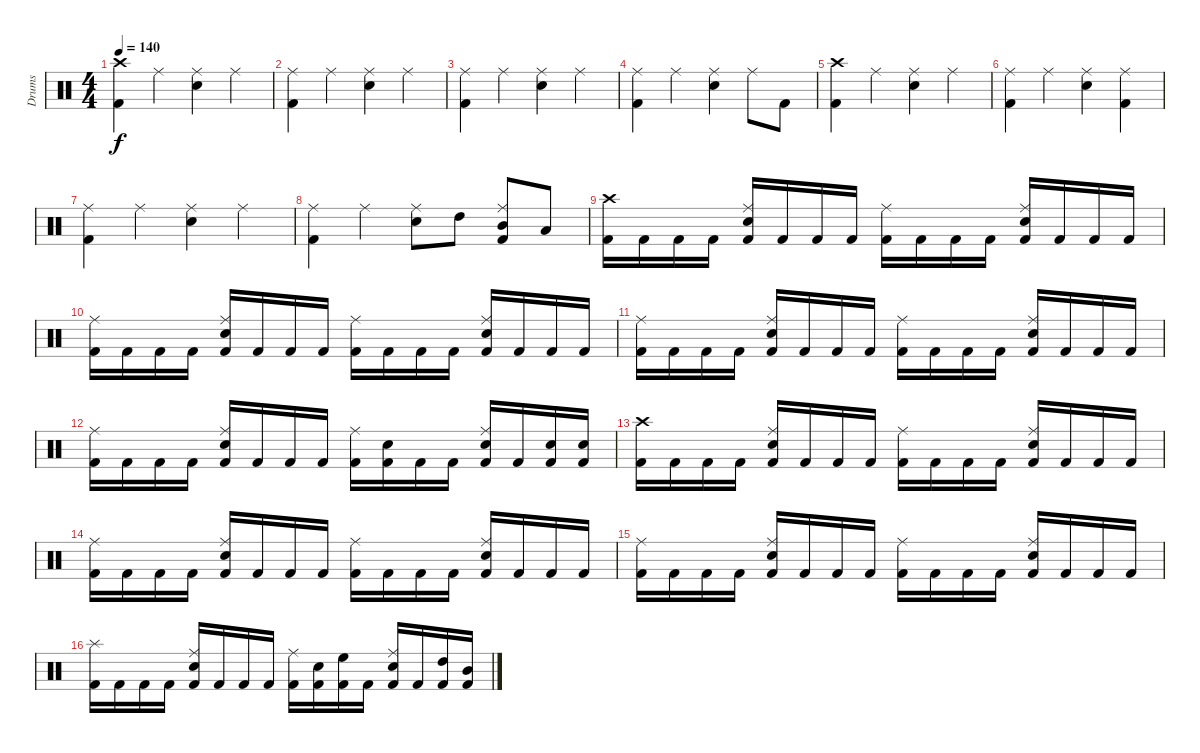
\track ("Drums" "Drums") {instrument percussion}
\staff {score}
\articulation defaults
\ts (4 4)
\tempo 140
\clef neutral
\ks c
("Kick (hit) 2" "Crash high (hit)").4{dy f} "Ride (middle)".4 ("Electric Snare (hit)" "Ride (middle)").4 "Ride (middle)".4 |
("Kick (hit) 2" "Ride (middle)").4 "Ride (middle)".4 ("Electric Snare (hit)" "Ride (middle)").4 "Ride (middle)".4 |
("Kick (hit) 2" "Ride (middle)").4 "Ride (middle)".4 ("Electric Snare (hit)" "Ride (middle)").4 "Ride (middle)".4 |
("Kick (hit) 2" "Ride (middle)").4 "Ride (middle)".4 ("Electric Snare (hit)" "Ride (middle)").4 "Ride (middle)".8 "Kick (hit) 2".8 |
("Kick (hit) 2" "Crash high (hit)").4 "Ride (middle)".4 ("Electric Snare (hit)" "Ride (middle)").4 "Ride (middle)".4 |
("Kick (hit) 2" "Ride (middle)").4 "Ride (middle)".4 ("Electric Snare (hit)" "Ride (middle)").4 ("Kick (hit) 2" "Ride (middle)").4 |
("Kick (hit) 2" "Ride (middle)").4 "Ride (middle)".4 ("Electric Snare (hit)" "Ride (middle)").4 "Ride (middle)".4 |
("Kick (hit) 2" "Ride (middle)").4 "Ride (middle)".4 ("Electric Snare (hit)" "Ride (middle)").8 "High Tom (hit)".8 ("Kick (hit) 2" "Ride (middle)" "Mid Tom (hit)").8 "Low Tom (hit)".8 |
("Kick (hit) 2" "Crash high (hit)").16 "Kick (hit) 2".16 "Kick (hit) 2".16 "Kick (hit) 2".16 ("Kick (hit) 2" "Electric Snare (hit)" "Ride (middle)").16 "Kick (hit) 2".16 "Kick (hit) 2".16 "Kick (hit) 2".16 ("Kick (hit) 2" "Ride (middle)").16 "Kick (hit) 2".16 "Kick (hit) 2".16 "Kick (hit) 2".16 ("Kick (hit) 2" "Electric Snare (hit)" "Ride (middle)").16 "Kick (hit) 2".16 "Kick (hit) 2".16 "Kick (hit) 2".16 |
("Kick (hit) 2" "Ride (middle)").16 "Kick (hit) 2".16 "Kick (hit) 2".16 "Kick (hit) 2".16 ("Kick (hit) 2" "Electric Snare (hit)" "Ride (middle)").16 "Kick (hit) 2".16 "Kick (hit) 2".16 "Kick (hit) 2".16 ("Kick (hit) 2" "Ride (middle)").16 "Kick (hit) 2".16 "Kick (hit) 2".16 "Kick (hit) 2".16 ("Kick (hit) 2" "Electric Snare (hit)" "Ride (middle)").16 "Kick (hit) 2".16 "Kick (hit) 2".16 "Kick (hit) 2".16 |
("Kick (hit) 2" "Ride (middle)").16 "Kick (hit) 2".16 "Kick (hit) 2".16 "Kick (hit) 2".16 ("Kick (hit) 2" "Electric Snare (hit)" "Ride (middle)").16 "Kick (hit) 2".16 "Kick (hit) 2".16 "Kick (hit) 2".16 ("Kick (hit) 2" "Ride (middle)").16 "Kick (hit) 2".16 "Kick (hit) 2".16 "Kick (hit) 2".16 ("Kick (hit) 2" "Electric Snare (hit)" "Ride (middle)").16 "Kick (hit) 2".16 "Kick (hit) 2".16 "Kick (hit) 2".16 |
("Kick (hit) 2" "Ride (middle)").16 "Kick (hit) 2".16 "Kick (hit) 2".16 "Kick (hit) 2".16 ("Kick (hit) 2" "Electric Snare (hit)" "Ride (middle)").16 "Kick (hit) 2".16 "Kick (hit) 2".16 "Kick (hit) 2".16 ("Kick (hit) 2" "Ride (middle)").16 ("Kick (hit) 2" "Electric Snare (hit)").16 "Kick (hit) 2".16 "Kick (hit) 2".16 ("Kick (hit) 2" "Electric Snare (hit)" "Ride (middle)").16 "Kick (hit) 2".16 ("Kick (hit) 2" "Electric Snare (hit)").16 ("Kick (hit) 2" "Electric Snare (hit)").16 |
("Kick (hit) 2" "Crash high (hit)").16 "Kick (hit) 2".16 "Kick (hit) 2".16 "Kick (hit) 2".16 ("Kick (hit) 2" "Electric Snare (hit)" "Ride (middle)").16 "Kick (hit) 2".16 "Kick (hit) 2".16 "Kick (hit) 2".16 ("Kick (hit) 2" "Ride (middle)").16 "Kick (hit) 2".16 "Kick (hit) 2".16 "Kick (hit) 2".16 ("Kick (hit) 2" "Electric Snare (hit)" "Ride (middle)").16 "Kick (hit) 2".16 "Kick (hit) 2".16 "Kick (hit) 2".16 |
("Kick (hit) 2" "Ride (middle)").16 "Kick (hit) 2".16 "Kick (hit) 2".16 "Kick (hit) 2".16 ("Kick (hit) 2" "Electric Snare (hit)" "Ride (middle)").16 "Kick (hit) 2".16 "Kick (hit) 2".16 "Kick (hit) 2".16 ("Kick (hit) 2" "Ride (middle)").16 "Kick (hit) 2".16 "Kick (hit) 2".16 "Kick (hit) 2".16 ("Kick (hit) 2" "Electric Snare (hit)" "Ride (middle)").16 "Kick (hit) 2".16 "Kick (hit) 2".16 "Kick (hit) 2".16 |
("Kick (hit) 2" "Ride (middle)").16 "Kick (hit) 2".16 "Kick (hit) 2".16 "Kick (hit) 2".16 ("Kick (hit) 2" "Electric Snare (hit)" "Ride (middle)").16 "Kick (hit) 2".16 "Kick (hit) 2".16 "Kick (hit) 2".16 ("Kick (hit) 2" "Ride (middle)").16 "Kick (hit) 2".16 "Kick (hit) 2".16 "Kick (hit) 2".16 ("Kick (hit) 2" "Electric Snare (hit)" "Ride (middle)").16 "Kick (hit) 2".16 "Kick (hit) 2".16 "Kick (hit) 2".16 |
("Kick (hit) 2" "Splash (hit)").16 "Kick (hit) 2".16 "Kick (hit) 2".16 "Kick (hit) 2".16 ("Kick (hit) 2" "Electric Snare (hit)" "Ride (middle)").16 "Kick (hit) 2".16 "Kick (hit) 2".16 "Kick (hit) 2".16 ("Kick (hit) 2" "Ride (middle)").16 ("Kick (hit) 2" "Electric Snare (hit)").16 ("Kick (hit) 2" "High Floor Tom (hit)").16 "Kick (hit) 2".16 ("Kick (hit) 2" "Electric Snare (hit)" "Ride (middle)").16 "Kick (hit) 2".16 ("Kick (hit) 2" "High Tom (hit)").16 ("Kick (hit) 2" "Mid Tom (hit)").16
